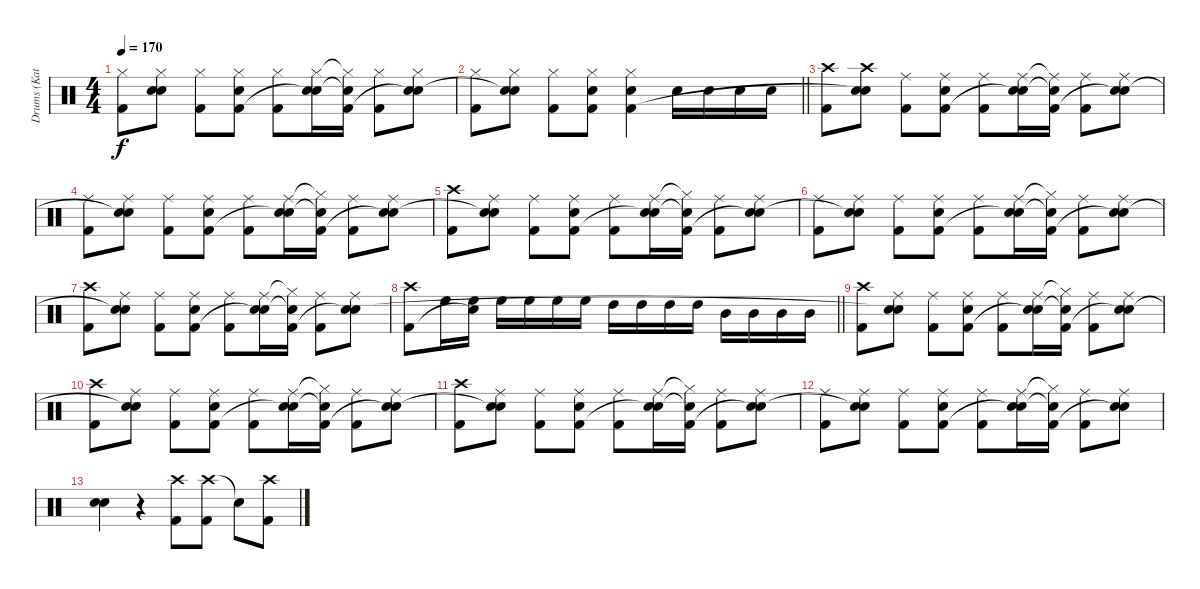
\track ("Drums (Katsuji)" "Drums (Kat") {instrument percussion}
\staff {score}
\articulation defaults
\ts (4 4)
\tempo 170
\clef neutral
\ks c
("Hi-Hat (closed)" "Kick (hit) 2").8{dy f} ("Hi-Hat (closed)" "Snare (hit) 2" "Snare (hit)"{t}).8 ("Hi-Hat (closed)" "Kick (hit) 2").8 ("Hi-Hat (closed)" "Snare (hit) 2" "Kick (hit) 2").8 ("Hi-Hat (closed)" "Kick (hit) 2").8 ("Hi-Hat (closed)" "Snare (hit) 2" "Snare (hit)"{t}).16 ("Hi-Hat (closed)"{t} "Snare (hit) 2"{t} "Kick (hit) 2").16 ("Hi-Hat (closed)" "Kick (hit) 2").8 ("Hi-Hat (closed)" "Snare (hit) 2" "Snare (hit)"{t}).8 |
\barLineRight lightlight
("Hi-Hat (closed)" "Kick (hit) 2").8 ("Hi-Hat (closed)" "Snare (hit) 2" "Snare (hit)"{t}).8 ("Hi-Hat (closed)" "Kick (hit) 2").8 ("Hi-Hat (closed)" "Snare (hit) 2" "Kick (hit) 2").8 ("Hi-Hat (closed)" "Snare (hit) 2" "Kick (hit) 2").4 "Snare (hit) 2".16 "Snare (hit) 2".16 "Snare (hit) 2".16 "Snare (hit) 2".16 |
("Crash high (hit)" "Kick (hit) 2").8 ("Crash high (hit)" "Snare (hit) 2" "Snare (hit)"{t}).8 ("Ride (middle)" "Kick (hit) 2").8 ("Ride (middle)" "Snare (hit) 2" "Kick (hit) 2").8 ("Ride (middle)" "Kick (hit) 2").8 ("Ride (middle)" "Snare (hit) 2" "Snare (hit)"{t}).16 ("Ride (middle)"{t} "Snare (hit) 2"{t} "Kick (hit) 2").16 ("Ride (middle)" "Kick (hit) 2").8 ("Ride (middle)" "Snare (hit) 2" "Snare (hit)"{t}).8 |
("Ride (middle)" "Kick (hit) 2").8 ("Ride (middle)" "Snare (hit) 2" "Snare (hit)"{t}).8 ("Ride (middle)" "Kick (hit) 2").8 ("Ride (middle)" "Snare (hit) 2" "Kick (hit) 2").8 ("Ride (middle)" "Kick (hit) 2").8 ("Ride (middle)" "Snare (hit) 2" "Snare (hit)"{t}).16 ("Hi-Hat (closed)"{t} "Snare (hit) 2"{t} "Kick (hit) 2").16 ("Ride (middle)" "Kick (hit) 2").8 ("Ride (middle)" "Snare (hit) 2" "Snare (hit)"{t}).8 |
("Crash high (hit)" "Kick (hit) 2").8 ("Ride (middle)" "Snare (hit) 2" "Snare (hit)"{t}).8 ("Ride (middle)" "Kick (hit) 2").8 ("Ride (middle)" "Snare (hit) 2" "Kick (hit) 2").8 ("Ride (middle)" "Kick (hit) 2").8 ("Ride (middle)" "Snare (hit) 2" "Snare (hit)"{t}).16 ("Hi-Hat (closed)"{t} "Snare (hit) 2"{t} "Kick (hit) 2").16 ("Ride (middle)" "Kick (hit) 2").8 ("Ride (middle)" "Snare (hit) 2" "Snare (hit)"{t}).8 |
("Ride (middle)" "Kick (hit) 2").8 ("Ride (middle)" "Snare (hit) 2" "Snare (hit)"{t}).8 ("Ride (middle)" "Kick (hit) 2").8 ("Ride (middle)" "Snare (hit) 2" "Kick (hit) 2").8 ("Ride (middle)" "Kick (hit) 2").8 ("Ride (middle)" "Snare (hit) 2" "Snare (hit)"{t}).16 ("Hi-Hat (closed)"{t} "Snare (hit) 2"{t} "Kick (hit) 2").16 ("Ride (middle)" "Kick (hit) 2").8 ("Ride (middle)" "Snare (hit) 2" "Snare (hit)"{t}).8 |
("Crash high (hit)" "Kick (hit) 2").8 ("Ride (middle)" "Snare (hit) 2" "Snare (hit)"{t}).8 ("Ride (middle)" "Kick (hit) 2").8 ("Ride (middle)" "Snare (hit) 2" "Kick (hit) 2").8 ("Ride (middle)" "Kick (hit) 2").8 ("Ride (middle)" "Snare (hit) 2" "Snare (hit)"{t}).16 ("Hi-Hat (closed)"{t} "Snare (hit) 2"{t} "Kick (hit) 2").16 ("Ride (middle)" "Kick (hit) 2").8 ("Ride (middle)" "Snare (hit) 2" "Snare (hit)"{t}).8 |
\barLineRight lightlight
("Crash high (hit)" "Kick (hit) 2").8 "High Floor Tom (hit)".16 ("High Floor Tom (hit)" "Snare (hit)"{t}).16 "High Floor Tom (hit)".16 "High Floor Tom (hit)".16 "High Floor Tom (hit)".16 "High Floor Tom (hit)".16 "High Tom (hit)".16 "High Tom (hit)".16 "High Tom (hit)".16 "High Tom (hit)".16 "Mid Tom (hit)".16 "Mid Tom (hit)".16 "Mid Tom (hit)".16 "Mid Tom (hit)".16 |
("Crash high (hit)" "Kick (hit) 2").8 ("Ride (middle)" "Snare (hit) 2" "Snare (hit)"{t}).8 ("Ride (middle)" "Kick (hit) 2").8 ("Ride (middle)" "Snare (hit) 2" "Kick (hit) 2").8 ("Ride (middle)" "Kick (hit) 2").8 ("Ride (middle)" "Snare (hit) 2" "Snare (hit)"{t}).16 ("Hi-Hat (closed)"{t} "Snare (hit) 2"{t} "Kick (hit) 2").16 ("Ride (middle)" "Kick (hit) 2").8 ("Ride (middle)" "Snare (hit) 2" "Snare (hit)"{t}).8 |
("Crash high (hit)" "Kick (hit) 2").8 ("Ride (middle)" "Snare (hit) 2" "Snare (hit)"{t}).8 ("Ride (middle)" "Kick (hit) 2").8 ("Ride (middle)" "Snare (hit) 2" "Kick (hit) 2").8 ("Ride (middle)" "Kick (hit) 2").8 ("Ride (middle)" "Snare (hit) 2" "Snare (hit)"{t}).16 ("Hi-Hat (closed)"{t} "Snare (hit) 2"{t} "Kick (hit) 2").16 ("Ride (middle)" "Kick (hit) 2").8 ("Ride (middle)" "Snare (hit) 2" "Snare (hit)"{t}).8 |
("Crash high (hit)" "Kick (hit) 2").8 ("Ride (middle)" "Snare (hit) 2" "Snare (hit)"{t}).8 ("Ride (middle)" "Kick (hit) 2").8 ("Ride (middle)" "Snare (hit) 2" "Kick (hit) 2").8 ("Ride (middle)" "Kick (hit) 2").8 ("Ride (middle)" "Snare (hit) 2" "Snare (hit)"{t}).16 ("Hi-Hat (closed)"{t} "Snare (hit) 2"{t} "Kick (hit) 2").16 ("Ride (middle)" "Kick (hit) 2").8 ("Ride (middle)" "Snare (hit) 2" "Snare (hit)"{t}).8 |
("Ride (middle)" "Kick (hit) 2").8 ("Ride (middle)" "Snare (hit) 2" "Snare (hit)"{t}).8 ("Ride (middle)" "Kick (hit) 2").8 ("Ride (middle)" "Snare (hit) 2" "Kick (hit) 2").8 ("Ride (middle)" "Kick (hit) 2").8 ("Ride (middle)" "Snare (hit) 2" "Snare (hit)"{t}).16 ("Hi-Hat (closed)"{t} "Snare (hit) 2"{t} "Kick (hit) 2").16 ("Ride (middle)" "Kick (hit) 2").8 ("Ride (middle)" "Snare (hit) 2" "Snare (hit)"{t}).8 |
("Snare (hit) 2" "Snare (hit) 2").4 r.4 ("Crash high (hit)" "Kick (hit) 2").8 ("Crash high (hit)" "Kick (hit) 2").8 "Snare (hit)"{t}.8 ("Crash high (hit)" "Kick (hit) 2").8
